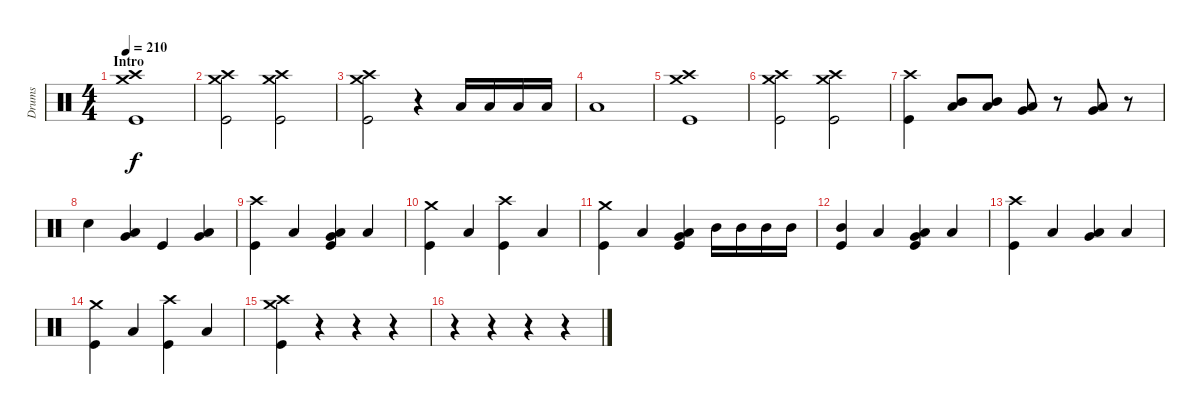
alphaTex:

\track ("Drums" "Drums") {instrument percussion}
\staff {score}
\articulation defaults
\ts (4 4)
\section ("" "Intro")
\tempo 210
\clef neutral
\ks c
("Crash high (hit)" "Crash medium (hit)" "Kick (hit)").1{dy f} |
("Crash high (hit)" "Crash medium (hit)" "Kick (hit)").2 ("Crash high (hit)" "Crash medium (hit)" "Kick (hit)").2 |
("Crash high (hit)" "Crash medium (hit)" "Kick (hit)").2 r.4 "Low Floor Tom (hit)".16 "Low Floor Tom (hit)".16 "Low Floor Tom (hit)".16 "Low Floor Tom (hit)".16 |
"Low Floor Tom (hit)".1 |
("Crash high (hit)" "Crash medium (hit)" "Kick (hit)").1 |
("Crash high (hit)" "Crash medium (hit)" "Kick (hit)").2 ("Crash high (hit)" "Crash medium (hit)" "Kick (hit)").2 |
("Crash high (hit)" "Kick (hit)").4 ("Mid Tom (hit)" "Low Tom (hit)").8 ("Mid Tom (hit)" "Low Tom (hit)").8 ("Low Tom (hit)" "Very Low Tom (hit)").8 r.8 ("Very Low Tom (hit)" "Low Floor Tom (hit)").8 r.8 |
"Snare (hit) 2".4 ("Low Tom (hit)" "Very Low Tom (hit)").4 "Kick (hit)".4 ("Low Tom (hit)" "Very Low Tom (hit)").4 |
("Crash high (hit)" "Kick (hit)").4 "Low Floor Tom (hit)".4 ("Low Tom (hit)" "Very Low Tom (hit)" "Kick (hit)").4 "Low Floor Tom (hit)".4 |
("Crash medium (hit)" "Kick (hit)").4 "Low Floor Tom (hit)".4 ("Crash high (hit)" "Kick (hit)").4 "Low Floor Tom (hit)".4 |
("Crash medium (hit)" "Kick (hit)").4 "Low Floor Tom (hit)".4 ("Low Tom (hit)" "Very Low Tom (hit)" "Kick (hit)").4 "Mid Tom (hit)".16 "Mid Tom (hit)".16 "Mid Tom (hit)".16 "Mid Tom (hit)".16 |
("Mid Tom (hit)" "Kick (hit)").4 "Low Floor Tom (hit)".4 ("Low Tom (hit)" "Very Low Tom (hit)" "Kick (hit)").4 "Low Floor Tom (hit)".4 |
("Crash high (hit)" "Kick (hit)").4 "Low Floor Tom (hit)".4 ("Low Tom (hit)" "Very Low Tom (hit)").4 "Low Floor Tom (hit)".4 |
("Crash medium (hit)" "Kick (hit)").4 "Low Floor Tom (hit)".4 ("Crash high (hit)" "Kick (hit)").4 "Low Floor Tom (hit)".4 |
("Crash high (hit)" "Crash medium (hit)" "Kick (hit)").4 r.4 r.4 r.4 |
r.4 r.4 r.4 r.4
